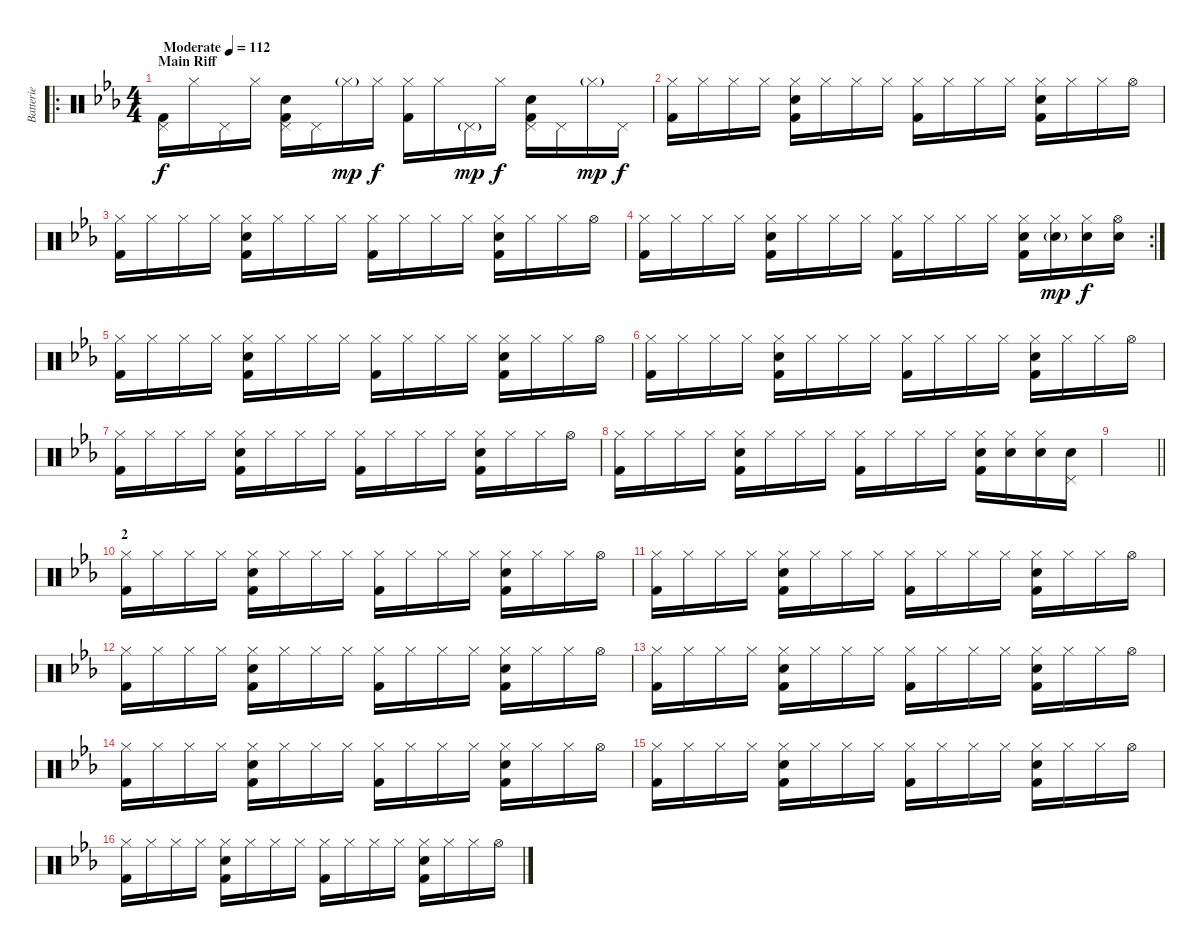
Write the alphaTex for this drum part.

\track ("Batterie" "Batterie") {instrument percussion}
\staff {score}
\articulation defaults
\ro
\ts (4 4)
\section ("" "Main Riff")
\tempo (112 "Moderate")
\clef neutral
\ks cminor
("Pedal Hi-Hat (hit)" "Kick (hit) 2").16{dy f} "Hi-Hat (closed)".16 "Pedal Hi-Hat (hit)".16 "Hi-Hat (closed)".16 ("Pedal Hi-Hat (hit)" "Electric Snare (hit)" "Kick (hit) 2").16 "Pedal Hi-Hat (hit)".16 "Hi-Hat (closed)"{g}.16{dy mp} "Hi-Hat (closed)".16{dy f} ("Hi-Hat (closed)" "Kick (hit) 2").16 "Hi-Hat (closed)".16 "Pedal Hi-Hat (hit)"{g}.16{dy mp} "Hi-Hat (closed)".16{dy f} ("Pedal Hi-Hat (hit)" "Electric Snare (hit)" "Kick (hit) 2").16 "Pedal Hi-Hat (hit)".16 "Hi-Hat (closed)"{g}.16{dy mp} "Pedal Hi-Hat (hit)".16{dy f} |
("Hi-Hat (closed)" "Kick (hit) 2").16 "Hi-Hat (closed)".16 "Hi-Hat (closed)".16 "Hi-Hat (closed)".16 ("Hi-Hat (closed)" "Electric Snare (hit)" "Kick (hit) 2").16 "Hi-Hat (closed)".16 "Hi-Hat (closed)".16 "Hi-Hat (closed)".16 ("Hi-Hat (closed)" "Kick (hit) 2").16 "Hi-Hat (closed)".16 "Hi-Hat (closed)".16 "Hi-Hat (closed)".16 ("Hi-Hat (closed)" "Electric Snare (hit)" "Kick (hit) 2").16 "Hi-Hat (closed)".16 "Hi-Hat (closed)".16 "Hi-Hat (open)".16 |
("Hi-Hat (closed)" "Kick (hit) 2").16 "Hi-Hat (closed)".16 "Hi-Hat (closed)".16 "Hi-Hat (closed)".16 ("Hi-Hat (closed)" "Electric Snare (hit)" "Kick (hit) 2").16 "Hi-Hat (closed)".16 "Hi-Hat (closed)".16 "Hi-Hat (closed)".16 ("Hi-Hat (closed)" "Kick (hit) 2").16 "Hi-Hat (closed)".16 "Hi-Hat (closed)".16 "Hi-Hat (closed)".16 ("Hi-Hat (closed)" "Electric Snare (hit)" "Kick (hit) 2").16 "Hi-Hat (closed)".16 "Hi-Hat (closed)".16 "Hi-Hat (open)".16 |
\rc 2
("Hi-Hat (closed)" "Kick (hit) 2").16 "Hi-Hat (closed)".16 "Hi-Hat (closed)".16 "Hi-Hat (closed)".16 ("Hi-Hat (closed)" "Electric Snare (hit)" "Kick (hit) 2").16 "Hi-Hat (closed)".16 "Hi-Hat (closed)".16 "Hi-Hat (closed)".16 ("Hi-Hat (closed)" "Kick (hit) 2").16 "Hi-Hat (closed)".16 "Hi-Hat (closed)".16 "Hi-Hat (closed)".16 ("Hi-Hat (closed)" "Electric Snare (hit)" "Kick (hit) 2").16 ("Hi-Hat (closed)" "Electric Snare (hit)"{g}).16{dy mp} ("Hi-Hat (closed)" "Electric Snare (hit)").16{dy f} ("Hi-Hat (open)" "Electric Snare (hit)").16 |
("Hi-Hat (closed)" "Kick (hit) 2").16 "Hi-Hat (closed)".16 "Hi-Hat (closed)".16 "Hi-Hat (closed)".16 ("Hi-Hat (closed)" "Electric Snare (hit)" "Kick (hit) 2").16 "Hi-Hat (closed)".16 "Hi-Hat (closed)".16 "Hi-Hat (closed)".16 ("Hi-Hat (closed)" "Kick (hit) 2").16 "Hi-Hat (closed)".16 "Hi-Hat (closed)".16 "Hi-Hat (closed)".16 ("Hi-Hat (closed)" "Electric Snare (hit)" "Kick (hit) 2").16 "Hi-Hat (closed)".16 "Hi-Hat (closed)".16 "Hi-Hat (open)".16 |
("Hi-Hat (closed)" "Kick (hit) 2").16 "Hi-Hat (closed)".16 "Hi-Hat (closed)".16 "Hi-Hat (closed)".16 ("Hi-Hat (closed)" "Electric Snare (hit)" "Kick (hit) 2").16 "Hi-Hat (closed)".16 "Hi-Hat (closed)".16 "Hi-Hat (closed)".16 ("Hi-Hat (closed)" "Kick (hit) 2").16 "Hi-Hat (closed)".16 "Hi-Hat (closed)".16 "Hi-Hat (closed)".16 ("Hi-Hat (closed)" "Electric Snare (hit)" "Kick (hit) 2").16 "Hi-Hat (closed)".16 "Hi-Hat (closed)".16 "Hi-Hat (open)".16 |
("Hi-Hat (closed)" "Kick (hit) 2").16 "Hi-Hat (closed)".16 "Hi-Hat (closed)".16 "Hi-Hat (closed)".16 ("Hi-Hat (closed)" "Electric Snare (hit)" "Kick (hit) 2").16 "Hi-Hat (closed)".16 "Hi-Hat (closed)".16 "Hi-Hat (closed)".16 ("Hi-Hat (closed)" "Kick (hit) 2").16 "Hi-Hat (closed)".16 "Hi-Hat (closed)".16 "Hi-Hat (closed)".16 ("Hi-Hat (closed)" "Electric Snare (hit)" "Kick (hit) 2").16 "Hi-Hat (closed)".16 "Hi-Hat (closed)".16 "Hi-Hat (open)".16 |
("Hi-Hat (closed)" "Kick (hit) 2").16 "Hi-Hat (closed)".16 "Hi-Hat (closed)".16 "Hi-Hat (closed)".16 ("Hi-Hat (closed)" "Electric Snare (hit)" "Kick (hit) 2").16 "Hi-Hat (closed)".16 "Hi-Hat (closed)".16 "Hi-Hat (closed)".16 ("Hi-Hat (closed)" "Kick (hit) 2").16 "Hi-Hat (closed)".16 "Hi-Hat (closed)".16 "Hi-Hat (closed)".16 ("Hi-Hat (closed)" "Electric Snare (hit)" "Kick (hit) 2").16 ("Hi-Hat (closed)" "Electric Snare (hit)").16 ("Hi-Hat (closed)" "Electric Snare (hit)").16 ("Pedal Hi-Hat (hit)" "Electric Snare (hit)").16 |
\barLineRight lightlight
|
\section ("" "2")
("Hi-Hat (closed)" "Kick (hit) 2").16 "Hi-Hat (closed)".16 "Hi-Hat (closed)".16 "Hi-Hat (closed)".16 ("Hi-Hat (closed)" "Electric Snare (hit)" "Kick (hit) 2").16 "Hi-Hat (closed)".16 "Hi-Hat (closed)".16 "Hi-Hat (closed)".16 ("Hi-Hat (closed)" "Kick (hit) 2").16 "Hi-Hat (closed)".16 "Hi-Hat (closed)".16 "Hi-Hat (closed)".16 ("Hi-Hat (closed)" "Electric Snare (hit)" "Kick (hit) 2").16 "Hi-Hat (closed)".16 "Hi-Hat (closed)".16 "Hi-Hat (open)".16 |
("Hi-Hat (closed)" "Kick (hit) 2").16 "Hi-Hat (closed)".16 "Hi-Hat (closed)".16 "Hi-Hat (closed)".16 ("Hi-Hat (closed)" "Electric Snare (hit)" "Kick (hit) 2").16 "Hi-Hat (closed)".16 "Hi-Hat (closed)".16 "Hi-Hat (closed)".16 ("Hi-Hat (closed)" "Kick (hit) 2").16 "Hi-Hat (closed)".16 "Hi-Hat (closed)".16 "Hi-Hat (closed)".16 ("Hi-Hat (closed)" "Electric Snare (hit)" "Kick (hit) 2").16 "Hi-Hat (closed)".16 "Hi-Hat (closed)".16 "Hi-Hat (open)".16 |
("Hi-Hat (closed)" "Kick (hit) 2").16 "Hi-Hat (closed)".16 "Hi-Hat (closed)".16 "Hi-Hat (closed)".16 ("Hi-Hat (closed)" "Electric Snare (hit)" "Kick (hit) 2").16 "Hi-Hat (closed)".16 "Hi-Hat (closed)".16 "Hi-Hat (closed)".16 ("Hi-Hat (closed)" "Kick (hit) 2").16 "Hi-Hat (closed)".16 "Hi-Hat (closed)".16 "Hi-Hat (closed)".16 ("Hi-Hat (closed)" "Electric Snare (hit)" "Kick (hit) 2").16 "Hi-Hat (closed)".16 "Hi-Hat (closed)".16 "Hi-Hat (open)".16 |
("Hi-Hat (closed)" "Kick (hit) 2").16 "Hi-Hat (closed)".16 "Hi-Hat (closed)".16 "Hi-Hat (closed)".16 ("Hi-Hat (closed)" "Electric Snare (hit)" "Kick (hit) 2").16 "Hi-Hat (closed)".16 "Hi-Hat (closed)".16 "Hi-Hat (closed)".16 ("Hi-Hat (closed)" "Kick (hit) 2").16 "Hi-Hat (closed)".16 "Hi-Hat (closed)".16 "Hi-Hat (closed)".16 ("Hi-Hat (closed)" "Electric Snare (hit)" "Kick (hit) 2").16 "Hi-Hat (closed)".16 "Hi-Hat (closed)".16 "Hi-Hat (open)".16 |
("Hi-Hat (closed)" "Kick (hit) 2").16 "Hi-Hat (closed)".16 "Hi-Hat (closed)".16 "Hi-Hat (closed)".16 ("Hi-Hat (closed)" "Electric Snare (hit)" "Kick (hit) 2").16 "Hi-Hat (closed)".16 "Hi-Hat (closed)".16 "Hi-Hat (closed)".16 ("Hi-Hat (closed)" "Kick (hit) 2").16 "Hi-Hat (closed)".16 "Hi-Hat (closed)".16 "Hi-Hat (closed)".16 ("Hi-Hat (closed)" "Electric Snare (hit)" "Kick (hit) 2").16 "Hi-Hat (closed)".16 "Hi-Hat (closed)".16 "Hi-Hat (open)".16 |
("Hi-Hat (closed)" "Kick (hit) 2").16 "Hi-Hat (closed)".16 "Hi-Hat (closed)".16 "Hi-Hat (closed)".16 ("Hi-Hat (closed)" "Electric Snare (hit)" "Kick (hit) 2").16 "Hi-Hat (closed)".16 "Hi-Hat (closed)".16 "Hi-Hat (closed)".16 ("Hi-Hat (closed)" "Kick (hit) 2").16 "Hi-Hat (closed)".16 "Hi-Hat (closed)".16 "Hi-Hat (closed)".16 ("Hi-Hat (closed)" "Electric Snare (hit)" "Kick (hit) 2").16 "Hi-Hat (closed)".16 "Hi-Hat (closed)".16 "Hi-Hat (open)".16 |
("Hi-Hat (closed)" "Kick (hit) 2").16 "Hi-Hat (closed)".16 "Hi-Hat (closed)".16 "Hi-Hat (closed)".16 ("Hi-Hat (closed)" "Electric Snare (hit)" "Kick (hit) 2").16 "Hi-Hat (closed)".16 "Hi-Hat (closed)".16 "Hi-Hat (closed)".16 ("Hi-Hat (closed)" "Kick (hit) 2").16 "Hi-Hat (closed)".16 "Hi-Hat (closed)".16 "Hi-Hat (closed)".16 ("Hi-Hat (closed)" "Electric Snare (hit)" "Kick (hit) 2").16 "Hi-Hat (closed)".16 "Hi-Hat (closed)".16 "Hi-Hat (open)".16
